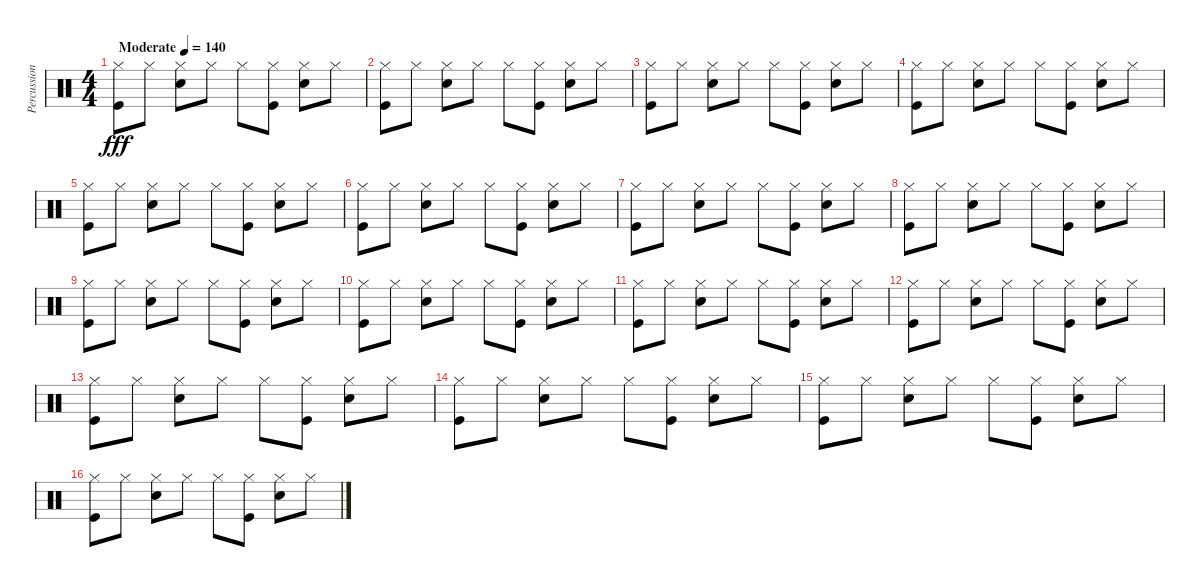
\track ("Percussion" "Percussion") {instrument percussion}
\staff {score}
\articulation defaults
\ts (4 4)
\tempo (140 "Moderate")
\clef neutral
\ks c
("Hi-Hat (closed)" "Kick (hit)").8{dy fff} "Hi-Hat (closed)".8 ("Hi-Hat (closed)" "Snare (hit) 2").8 "Hi-Hat (closed)".8 "Hi-Hat (closed)".8 ("Hi-Hat (closed)" "Kick (hit)").8 ("Hi-Hat (closed)" "Snare (hit) 2").8 "Hi-Hat (closed)".8 |
("Hi-Hat (closed)" "Kick (hit)").8 "Hi-Hat (closed)".8 ("Hi-Hat (closed)" "Snare (hit) 2").8 "Hi-Hat (closed)".8 "Hi-Hat (closed)".8 ("Hi-Hat (closed)" "Kick (hit)").8 ("Hi-Hat (closed)" "Snare (hit) 2").8 "Hi-Hat (closed)".8 |
("Hi-Hat (closed)" "Kick (hit)").8 "Hi-Hat (closed)".8 ("Hi-Hat (closed)" "Snare (hit) 2").8 "Hi-Hat (closed)".8 "Hi-Hat (closed)".8 ("Hi-Hat (closed)" "Kick (hit)").8 ("Hi-Hat (closed)" "Snare (hit) 2").8 "Hi-Hat (closed)".8 |
("Hi-Hat (closed)" "Kick (hit)").8 "Hi-Hat (closed)".8 ("Hi-Hat (closed)" "Snare (hit) 2").8 "Hi-Hat (closed)".8 "Hi-Hat (closed)".8 ("Hi-Hat (closed)" "Kick (hit)").8 ("Hi-Hat (closed)" "Snare (hit) 2").8 "Hi-Hat (closed)".8 |
("Hi-Hat (closed)" "Kick (hit)").8 "Hi-Hat (closed)".8 ("Hi-Hat (closed)" "Snare (hit) 2").8 "Hi-Hat (closed)".8 "Hi-Hat (closed)".8 ("Hi-Hat (closed)" "Kick (hit)").8 ("Hi-Hat (closed)" "Snare (hit) 2").8 "Hi-Hat (closed)".8 |
("Hi-Hat (closed)" "Kick (hit)").8 "Hi-Hat (closed)".8 ("Hi-Hat (closed)" "Snare (hit) 2").8 "Hi-Hat (closed)".8 "Hi-Hat (closed)".8 ("Hi-Hat (closed)" "Kick (hit)").8 ("Hi-Hat (closed)" "Snare (hit) 2").8 "Hi-Hat (closed)".8 |
("Hi-Hat (closed)" "Kick (hit)").8 "Hi-Hat (closed)".8 ("Hi-Hat (closed)" "Snare (hit) 2").8 "Hi-Hat (closed)".8 "Hi-Hat (closed)".8 ("Hi-Hat (closed)" "Kick (hit)").8 ("Hi-Hat (closed)" "Snare (hit) 2").8 "Hi-Hat (closed)".8 |
("Hi-Hat (closed)" "Kick (hit)").8 "Hi-Hat (closed)".8 ("Hi-Hat (closed)" "Snare (hit) 2").8 "Hi-Hat (closed)".8 "Hi-Hat (closed)".8 ("Hi-Hat (closed)" "Kick (hit)").8 ("Hi-Hat (closed)" "Snare (hit) 2").8 "Hi-Hat (closed)".8 |
("Hi-Hat (closed)" "Kick (hit)").8 "Hi-Hat (closed)".8 ("Hi-Hat (closed)" "Snare (hit) 2").8 "Hi-Hat (closed)".8 "Hi-Hat (closed)".8 ("Hi-Hat (closed)" "Kick (hit)").8 ("Hi-Hat (closed)" "Snare (hit) 2").8 "Hi-Hat (closed)".8 |
("Hi-Hat (closed)" "Kick (hit)").8 "Hi-Hat (closed)".8 ("Hi-Hat (closed)" "Snare (hit) 2").8 "Hi-Hat (closed)".8 "Hi-Hat (closed)".8 ("Hi-Hat (closed)" "Kick (hit)").8 ("Hi-Hat (closed)" "Snare (hit) 2").8 "Hi-Hat (closed)".8 |
("Hi-Hat (closed)" "Kick (hit)").8 "Hi-Hat (closed)".8 ("Hi-Hat (closed)" "Snare (hit) 2").8 "Hi-Hat (closed)".8 "Hi-Hat (closed)".8 ("Hi-Hat (closed)" "Kick (hit)").8 ("Hi-Hat (closed)" "Snare (hit) 2").8 "Hi-Hat (closed)".8 |
("Hi-Hat (closed)" "Kick (hit)").8 "Hi-Hat (closed)".8 ("Hi-Hat (closed)" "Snare (hit) 2").8 "Hi-Hat (closed)".8 "Hi-Hat (closed)".8 ("Hi-Hat (closed)" "Kick (hit)").8 ("Hi-Hat (closed)" "Snare (hit) 2").8 "Hi-Hat (closed)".8 |
("Hi-Hat (closed)" "Kick (hit)").8 "Hi-Hat (closed)".8 ("Hi-Hat (closed)" "Snare (hit) 2").8 "Hi-Hat (closed)".8 "Hi-Hat (closed)".8 ("Hi-Hat (closed)" "Kick (hit)").8 ("Hi-Hat (closed)" "Snare (hit) 2").8 "Hi-Hat (closed)".8 |
("Hi-Hat (closed)" "Kick (hit)").8 "Hi-Hat (closed)".8 ("Hi-Hat (closed)" "Snare (hit) 2").8 "Hi-Hat (closed)".8 "Hi-Hat (closed)".8 ("Hi-Hat (closed)" "Kick (hit)").8 ("Hi-Hat (closed)" "Snare (hit) 2").8 "Hi-Hat (closed)".8 |
("Hi-Hat (closed)" "Kick (hit)").8 "Hi-Hat (closed)".8 ("Hi-Hat (closed)" "Snare (hit) 2").8 "Hi-Hat (closed)".8 "Hi-Hat (closed)".8 ("Hi-Hat (closed)" "Kick (hit)").8 ("Hi-Hat (closed)" "Snare (hit) 2").8 "Hi-Hat (closed)".8 |
("Hi-Hat (closed)" "Kick (hit)").8 "Hi-Hat (closed)".8 ("Hi-Hat (closed)" "Snare (hit) 2").8 "Hi-Hat (closed)".8 "Hi-Hat (closed)".8 ("Hi-Hat (closed)" "Kick (hit)").8 ("Hi-Hat (closed)" "Snare (hit) 2").8 "Hi-Hat (closed)".8
